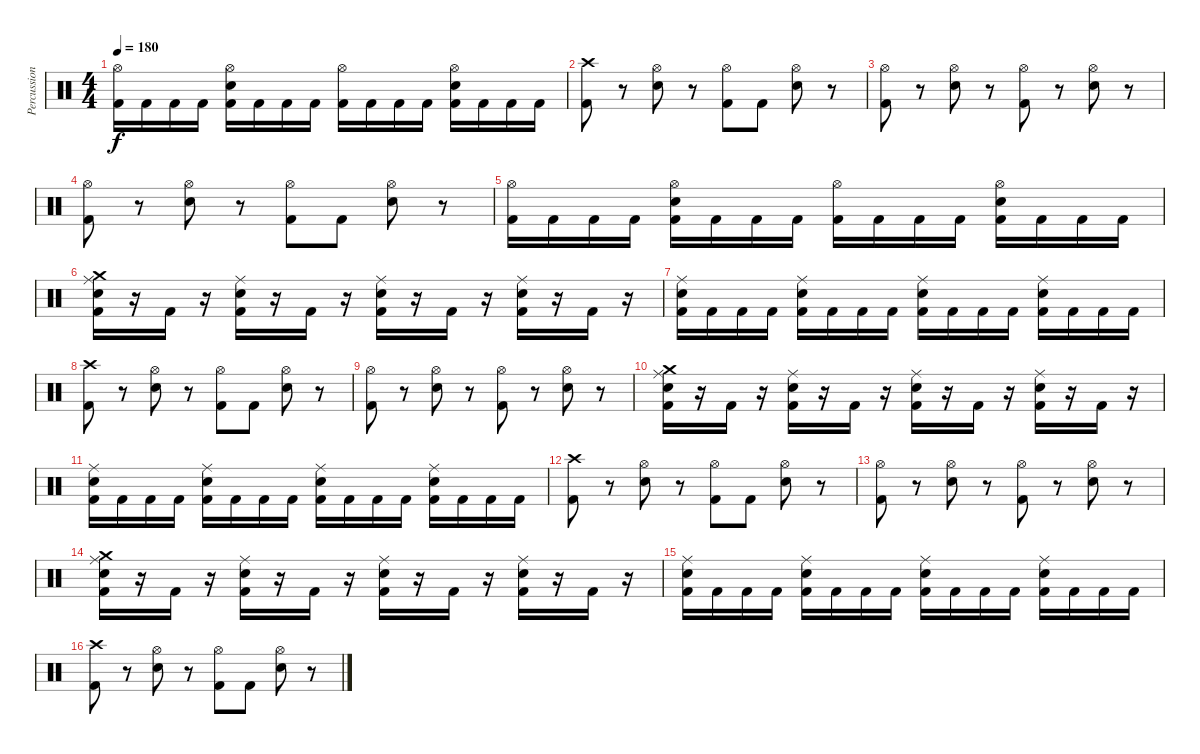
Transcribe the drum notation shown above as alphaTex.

\track ("Percussion" "Percussion") {instrument percussion}
\staff {score}
\articulation defaults
\ts (4 4)
\tempo 180
\clef neutral
\ks c
("Hi-Hat (open)" "Kick (hit) 2").16{dy f} "Kick (hit) 2".16 "Kick (hit) 2".16 "Kick (hit) 2".16 ("Hi-Hat (open)" "Snare (hit) 2" "Kick (hit) 2").16 "Kick (hit) 2".16 "Kick (hit) 2".16 "Kick (hit) 2".16 ("Hi-Hat (open)" "Kick (hit) 2").16 "Kick (hit) 2".16 "Kick (hit) 2".16 "Kick (hit) 2".16 ("Hi-Hat (open)" "Snare (hit) 2" "Kick (hit) 2").16 "Kick (hit) 2".16 "Kick (hit) 2".16 "Kick (hit) 2".16 |
("Crash high (hit)" "Kick (hit) 2").8 r.8 ("Hi-Hat (open)" "Snare (hit) 2").8 r.8 ("Hi-Hat (open)" "Kick (hit) 2").8 "Kick (hit) 2".8 ("Hi-Hat (open)" "Snare (hit) 2").8 r.8 |
("Hi-Hat (open)" "Kick (hit) 2").8 r.8 ("Hi-Hat (open)" "Snare (hit) 2").8 r.8 ("Hi-Hat (open)" "Kick (hit) 2").8 r.8 ("Hi-Hat (open)" "Snare (hit) 2").8 r.8 |
("Hi-Hat (open)" "Kick (hit) 2").8 r.8 ("Hi-Hat (open)" "Snare (hit) 2").8 r.8 ("Hi-Hat (open)" "Kick (hit) 2").8 "Kick (hit) 2".8 ("Hi-Hat (open)" "Snare (hit) 2").8 r.8 |
("Hi-Hat (open)" "Kick (hit) 2").16 "Kick (hit) 2".16 "Kick (hit) 2".16 "Kick (hit) 2".16 ("Hi-Hat (open)" "Snare (hit) 2" "Kick (hit) 2").16 "Kick (hit) 2".16 "Kick (hit) 2".16 "Kick (hit) 2".16 ("Hi-Hat (open)" "Kick (hit) 2").16 "Kick (hit) 2".16 "Kick (hit) 2".16 "Kick (hit) 2".16 ("Hi-Hat (open)" "Snare (hit) 2" "Kick (hit) 2").16 "Kick (hit) 2".16 "Kick (hit) 2".16 "Kick (hit) 2".16 |
("Crash medium (hit)" "Ride (middle)" "Snare (hit) 2" "Kick (hit) 2").16 r.16 "Kick (hit) 2".16 r.16 ("Ride (middle)" "Snare (hit) 2" "Kick (hit) 2").16 r.16 "Kick (hit) 2".16 r.16 ("Ride (middle)" "Snare (hit) 2" "Kick (hit) 2").16 r.16 "Kick (hit) 2".16 r.16 ("Ride (middle)" "Snare (hit) 2" "Kick (hit) 2").16 r.16 "Kick (hit) 2".16 r.16 |
("Ride (middle)" "Snare (hit) 2" "Kick (hit) 2").16 "Kick (hit) 2".16 "Kick (hit) 2".16 "Kick (hit) 2".16 ("Ride (middle)" "Snare (hit) 2" "Kick (hit) 2").16 "Kick (hit) 2".16 "Kick (hit) 2".16 "Kick (hit) 2".16 ("Ride (middle)" "Snare (hit) 2" "Kick (hit) 2").16 "Kick (hit) 2".16 "Kick (hit) 2".16 "Kick (hit) 2".16 ("Ride (middle)" "Snare (hit) 2" "Kick (hit) 2").16 "Kick (hit) 2".16 "Kick (hit) 2".16 "Kick (hit) 2".16 |
("Crash high (hit)" "Kick (hit) 2").8 r.8 ("Hi-Hat (open)" "Snare (hit) 2").8 r.8 ("Hi-Hat (open)" "Kick (hit) 2").8 "Kick (hit) 2".8 ("Hi-Hat (open)" "Snare (hit) 2").8 r.8 |
("Hi-Hat (open)" "Kick (hit) 2").8 r.8 ("Hi-Hat (open)" "Snare (hit) 2").8 r.8 ("Hi-Hat (open)" "Kick (hit) 2").8 r.8 ("Hi-Hat (open)" "Snare (hit) 2").8 r.8 |
("Crash medium (hit)" "Ride (middle)" "Snare (hit) 2" "Kick (hit) 2").16 r.16 "Kick (hit) 2".16 r.16 ("Ride (middle)" "Snare (hit) 2" "Kick (hit) 2").16 r.16 "Kick (hit) 2".16 r.16 ("Ride (middle)" "Snare (hit) 2" "Kick (hit) 2").16 r.16 "Kick (hit) 2".16 r.16 ("Ride (middle)" "Snare (hit) 2" "Kick (hit) 2").16 r.16 "Kick (hit) 2".16 r.16 |
("Ride (middle)" "Snare (hit) 2" "Kick (hit) 2").16 "Kick (hit) 2".16 "Kick (hit) 2".16 "Kick (hit) 2".16 ("Ride (middle)" "Snare (hit) 2" "Kick (hit) 2").16 "Kick (hit) 2".16 "Kick (hit) 2".16 "Kick (hit) 2".16 ("Ride (middle)" "Snare (hit) 2" "Kick (hit) 2").16 "Kick (hit) 2".16 "Kick (hit) 2".16 "Kick (hit) 2".16 ("Ride (middle)" "Snare (hit) 2" "Kick (hit) 2").16 "Kick (hit) 2".16 "Kick (hit) 2".16 "Kick (hit) 2".16 |
("Crash high (hit)" "Kick (hit) 2").8 r.8 ("Hi-Hat (open)" "Snare (hit) 2").8 r.8 ("Hi-Hat (open)" "Kick (hit) 2").8 "Kick (hit) 2".8 ("Hi-Hat (open)" "Snare (hit) 2").8 r.8 |
("Hi-Hat (open)" "Kick (hit) 2").8 r.8 ("Hi-Hat (open)" "Snare (hit) 2").8 r.8 ("Hi-Hat (open)" "Kick (hit) 2").8 r.8 ("Hi-Hat (open)" "Snare (hit) 2").8 r.8 |
("Crash medium (hit)" "Ride (middle)" "Snare (hit) 2" "Kick (hit) 2").16 r.16 "Kick (hit) 2".16 r.16 ("Ride (middle)" "Snare (hit) 2" "Kick (hit) 2").16 r.16 "Kick (hit) 2".16 r.16 ("Ride (middle)" "Snare (hit) 2" "Kick (hit) 2").16 r.16 "Kick (hit) 2".16 r.16 ("Ride (middle)" "Snare (hit) 2" "Kick (hit) 2").16 r.16 "Kick (hit) 2".16 r.16 |
("Ride (middle)" "Snare (hit) 2" "Kick (hit) 2").16 "Kick (hit) 2".16 "Kick (hit) 2".16 "Kick (hit) 2".16 ("Ride (middle)" "Snare (hit) 2" "Kick (hit) 2").16 "Kick (hit) 2".16 "Kick (hit) 2".16 "Kick (hit) 2".16 ("Ride (middle)" "Snare (hit) 2" "Kick (hit) 2").16 "Kick (hit) 2".16 "Kick (hit) 2".16 "Kick (hit) 2".16 ("Ride (middle)" "Snare (hit) 2" "Kick (hit) 2").16 "Kick (hit) 2".16 "Kick (hit) 2".16 "Kick (hit) 2".16 |
("Crash high (hit)" "Kick (hit) 2").8 r.8 ("Hi-Hat (open)" "Snare (hit) 2").8 r.8 ("Hi-Hat (open)" "Kick (hit) 2").8 "Kick (hit) 2".8 ("Hi-Hat (open)" "Snare (hit) 2").8 r.8
